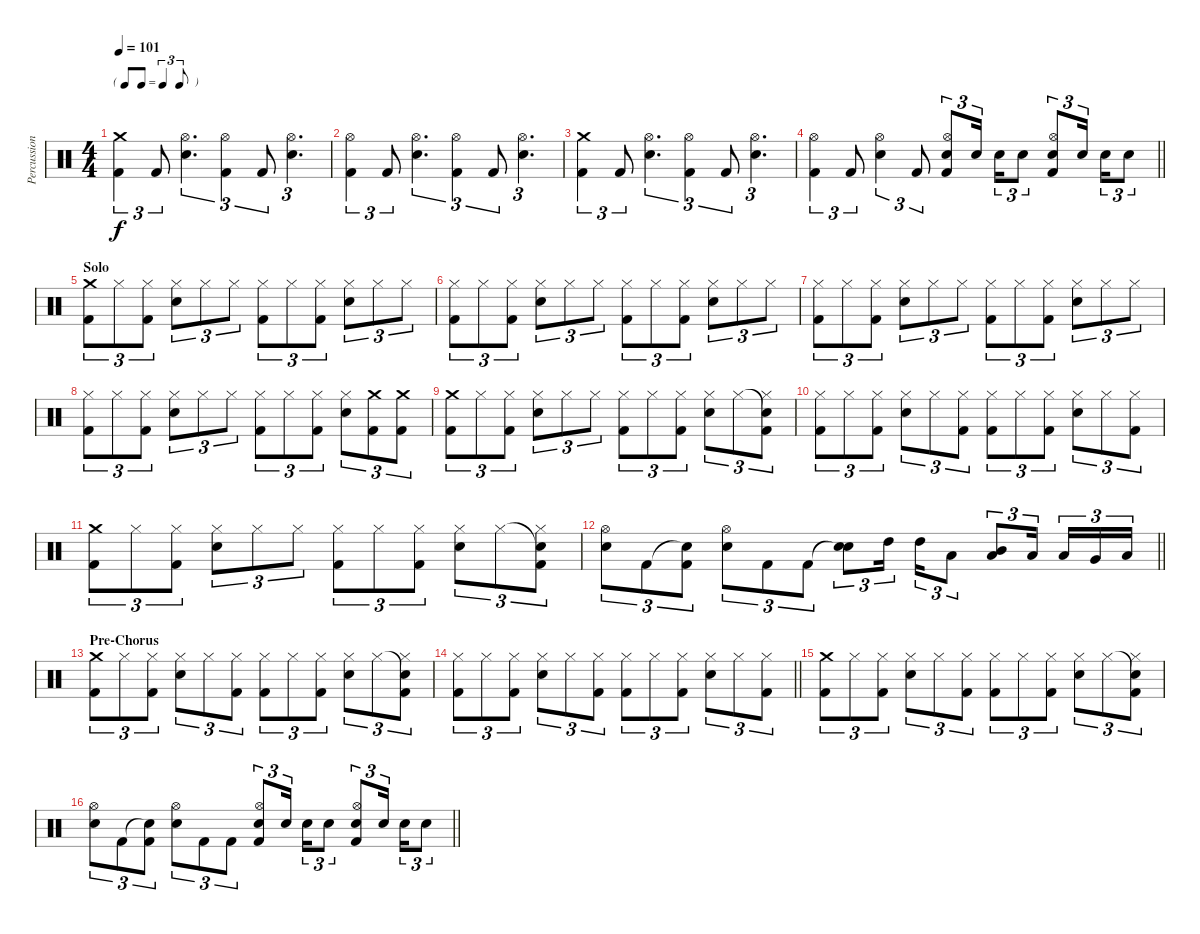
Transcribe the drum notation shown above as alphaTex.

\track ("Percussion" "Percussion") {instrument percussion}
\staff {score}
\articulation defaults
\ts (4 4)
\tf triplet8th
\tempo 101
\clef neutral
\ks c
("Crash medium (hit)" "Kick (hit) 2").4{tu (3 2) dy f} "Kick (hit) 2".8{tu (3 2)} ("Hi-Hat (open)" "Electric Snare (hit)").4{d tu (3 2)} ("Hi-Hat (open)" "Kick (hit) 2").4{tu (3 2)} "Kick (hit) 2".8{tu (3 2)} ("Hi-Hat (open)" "Electric Snare (hit)").4{d tu (3 2)} |
("Hi-Hat (open)" "Kick (hit) 2").4{tu (3 2)} "Kick (hit) 2".8{tu (3 2)} ("Hi-Hat (open)" "Electric Snare (hit)").4{d tu (3 2)} ("Hi-Hat (open)" "Kick (hit) 2").4{tu (3 2)} "Kick (hit) 2".8{tu (3 2)} ("Hi-Hat (open)" "Electric Snare (hit)").4{d tu (3 2)} |
("Crash medium (hit)" "Kick (hit) 2").4{tu (3 2)} "Kick (hit) 2".8{tu (3 2)} ("Hi-Hat (open)" "Electric Snare (hit)").4{d tu (3 2)} ("Hi-Hat (open)" "Kick (hit) 2").4{tu (3 2)} "Kick (hit) 2".8{tu (3 2)} ("Hi-Hat (open)" "Electric Snare (hit)").4{d tu (3 2)} |
\barLineRight lightlight
("Hi-Hat (open)" "Kick (hit) 2").4{tu (3 2)} "Kick (hit) 2".8{tu (3 2)} ("Hi-Hat (open)" "Electric Snare (hit)").4{tu (3 2)} "Kick (hit) 2".8{tu (3 2)} ("Hi-Hat (open)" "Electric Snare (hit)" "Kick (hit) 2").8{tu (3 2)} "Electric Snare (hit)".16{tu (3 2) beam splitsecondary} "Electric Snare (hit)".16{tu (3 2)} "Electric Snare (hit)".8{tu (3 2)} ("Hi-Hat (open)" "Electric Snare (hit)" "Kick (hit) 2").8{tu (3 2)} "Electric Snare (hit)".16{tu (3 2) beam splitsecondary} "Electric Snare (hit)".16{tu (3 2)} "Electric Snare (hit)".8{tu (3 2)} |
\section ("" "Solo")
("Crash medium (hit)" "Kick (hit) 2").8{tu (3 2)} "Hi-Hat (closed)".8{tu (3 2)} ("Hi-Hat (closed)" "Kick (hit) 2").8{tu (3 2)} ("Hi-Hat (closed)" "Electric Snare (hit)").8{tu (3 2)} "Hi-Hat (closed)".8{tu (3 2)} "Hi-Hat (closed)".8{tu (3 2)} ("Hi-Hat (closed)" "Kick (hit) 2").8{tu (3 2)} "Hi-Hat (closed)".8{tu (3 2)} ("Hi-Hat (closed)" "Kick (hit) 2").8{tu (3 2)} ("Hi-Hat (closed)" "Electric Snare (hit)").8{tu (3 2)} "Hi-Hat (closed)".8{tu (3 2)} "Hi-Hat (closed)".8{tu (3 2)} |
("Hi-Hat (closed)" "Kick (hit) 2").8{tu (3 2)} "Hi-Hat (closed)".8{tu (3 2)} ("Hi-Hat (closed)" "Kick (hit) 2").8{tu (3 2)} ("Hi-Hat (closed)" "Electric Snare (hit)").8{tu (3 2)} "Hi-Hat (closed)".8{tu (3 2)} "Hi-Hat (closed)".8{tu (3 2)} ("Hi-Hat (closed)" "Kick (hit) 2").8{tu (3 2)} "Hi-Hat (closed)".8{tu (3 2)} ("Hi-Hat (closed)" "Kick (hit) 2").8{tu (3 2)} ("Hi-Hat (closed)" "Electric Snare (hit)").8{tu (3 2)} "Hi-Hat (closed)".8{tu (3 2)} "Hi-Hat (closed)".8{tu (3 2)} |
("Hi-Hat (closed)" "Kick (hit) 2").8{tu (3 2)} "Hi-Hat (closed)".8{tu (3 2)} ("Hi-Hat (closed)" "Kick (hit) 2").8{tu (3 2)} ("Hi-Hat (closed)" "Electric Snare (hit)").8{tu (3 2)} "Hi-Hat (closed)".8{tu (3 2)} "Hi-Hat (closed)".8{tu (3 2)} ("Hi-Hat (closed)" "Kick (hit) 2").8{tu (3 2)} "Hi-Hat (closed)".8{tu (3 2)} ("Hi-Hat (closed)" "Kick (hit) 2").8{tu (3 2)} ("Hi-Hat (closed)" "Electric Snare (hit)").8{tu (3 2)} "Hi-Hat (closed)".8{tu (3 2)} "Hi-Hat (closed)".8{tu (3 2)} |
("Hi-Hat (closed)" "Kick (hit) 2").8{tu (3 2)} "Hi-Hat (closed)".8{tu (3 2)} ("Hi-Hat (closed)" "Kick (hit) 2").8{tu (3 2)} ("Hi-Hat (closed)" "Electric Snare (hit)").8{tu (3 2)} "Hi-Hat (closed)".8{tu (3 2)} "Hi-Hat (closed)".8{tu (3 2)} ("Hi-Hat (closed)" "Kick (hit) 2").8{tu (3 2)} "Hi-Hat (closed)".8{tu (3 2)} ("Hi-Hat (closed)" "Kick (hit) 2").8{tu (3 2)} ("Hi-Hat (closed)" "Electric Snare (hit)").8{tu (3 2)} ("Crash medium (hit)" "Kick (hit) 2").8{tu (3 2)} ("Crash medium (hit)" "Kick (hit) 2").8{tu (3 2)} |
("Crash medium (hit)" "Kick (hit) 2").8{tu (3 2)} "Hi-Hat (closed)".8{tu (3 2)} ("Hi-Hat (closed)" "Kick (hit) 2").8{tu (3 2)} ("Hi-Hat (closed)" "Electric Snare (hit)").8{tu (3 2)} "Hi-Hat (closed)".8{tu (3 2)} "Hi-Hat (closed)".8{tu (3 2)} ("Hi-Hat (closed)" "Kick (hit) 2").8{tu (3 2)} "Hi-Hat (closed)".8{tu (3 2)} ("Hi-Hat (closed)" "Kick (hit) 2").8{tu (3 2)} ("Hi-Hat (closed)" "Electric Snare (hit)").8{tu (3 2)} "Hi-Hat (closed)".8{tu (3 2)} ("Snare (hit)"{t} "Hi-Hat (closed)" "Kick (hit) 2").8{tu (3 2)} |
("Hi-Hat (closed)" "Kick (hit) 2").8{tu (3 2)} "Hi-Hat (closed)".8{tu (3 2)} ("Hi-Hat (closed)" "Kick (hit) 2").8{tu (3 2)} ("Hi-Hat (closed)" "Electric Snare (hit)").8{tu (3 2)} "Hi-Hat (closed)".8{tu (3 2)} ("Hi-Hat (closed)" "Kick (hit) 2").8{tu (3 2)} ("Hi-Hat (closed)" "Kick (hit) 2").8{tu (3 2)} "Hi-Hat (closed)".8{tu (3 2)} ("Hi-Hat (closed)" "Kick (hit) 2").8{tu (3 2)} ("Hi-Hat (closed)" "Electric Snare (hit)").8{tu (3 2)} "Hi-Hat (closed)".8{tu (3 2)} ("Hi-Hat (closed)" "Kick (hit) 2").8{tu (3 2)} |
("Crash medium (hit)" "Kick (hit) 2").8{tu (3 2)} "Hi-Hat (closed)".8{tu (3 2)} ("Hi-Hat (closed)" "Kick (hit) 2").8{tu (3 2)} ("Hi-Hat (closed)" "Electric Snare (hit)").8{tu (3 2)} "Hi-Hat (closed)".8{tu (3 2)} "Hi-Hat (closed)".8{tu (3 2)} ("Hi-Hat (closed)" "Kick (hit) 2").8{tu (3 2)} "Hi-Hat (closed)".8{tu (3 2)} ("Hi-Hat (closed)" "Kick (hit) 2").8{tu (3 2)} ("Hi-Hat (closed)" "Electric Snare (hit)").8{tu (3 2)} "Hi-Hat (closed)".8{tu (3 2)} ("Snare (hit)"{t} "Hi-Hat (closed)" "Kick (hit) 2").8{tu (3 2)} |
\barLineRight lightlight
("Hi-Hat (open)" "Electric Snare (hit)").8{tu (3 2)} "Kick (hit) 2".8{tu (3 2)} ("Snare (hit)"{t} "Kick (hit) 2").8{tu (3 2)} ("Hi-Hat (open)" "Electric Snare (hit)").8{tu (3 2)} "Kick (hit) 2".8{tu (3 2)} "Kick (hit) 2".8{tu (3 2)} ("Snare (hit)"{t} "Electric Snare (hit)").8{tu (3 2)} "High Tom (hit)".16{tu (3 2) beam splitsecondary} "High Tom (hit)".16{tu (3 2)} "Low Tom (hit)".8{tu (3 2)} ("Mid Tom (hit)" "Low Tom (hit)").8{tu (3 2)} "Low Tom (hit)".16{tu (3 2) beam splitsecondary} "Low Tom (hit)".16{tu (3 2)} "Very Low Tom (hit)".16{tu (3 2)} "Low Floor Tom (hit)".16{tu (3 2)} |
\section ("" "Pre-Chorus")
("Crash medium (hit)" "Kick (hit) 2").8{tu (3 2)} "Hi-Hat (closed)".8{tu (3 2)} ("Hi-Hat (closed)" "Kick (hit) 2").8{tu (3 2)} ("Hi-Hat (closed)" "Electric Snare (hit)").8{tu (3 2)} "Hi-Hat (closed)".8{tu (3 2)} ("Hi-Hat (closed)" "Kick (hit) 2").8{tu (3 2)} ("Hi-Hat (closed)" "Kick (hit) 2").8{tu (3 2)} "Hi-Hat (closed)".8{tu (3 2)} ("Hi-Hat (closed)" "Kick (hit) 2").8{tu (3 2)} ("Hi-Hat (closed)" "Electric Snare (hit)").8{tu (3 2)} "Hi-Hat (closed)".8{tu (3 2)} ("Snare (hit)"{t} "Hi-Hat (closed)" "Kick (hit) 2").8{tu (3 2)} |
\barLineRight lightlight
("Hi-Hat (closed)" "Kick (hit) 2").8{tu (3 2)} "Hi-Hat (closed)".8{tu (3 2)} ("Hi-Hat (closed)" "Kick (hit) 2").8{tu (3 2)} ("Hi-Hat (closed)" "Electric Snare (hit)").8{tu (3 2)} "Hi-Hat (closed)".8{tu (3 2)} ("Hi-Hat (closed)" "Kick (hit) 2").8{tu (3 2)} ("Hi-Hat (closed)" "Kick (hit) 2").8{tu (3 2)} "Hi-Hat (closed)".8{tu (3 2)} ("Hi-Hat (closed)" "Kick (hit) 2").8{tu (3 2)} ("Hi-Hat (closed)" "Electric Snare (hit)").8{tu (3 2)} "Hi-Hat (closed)".8{tu (3 2)} ("Hi-Hat (closed)" "Kick (hit) 2").8{tu (3 2)} |
("Crash medium (hit)" "Kick (hit) 2").8{tu (3 2)} "Hi-Hat (closed)".8{tu (3 2)} ("Hi-Hat (closed)" "Kick (hit) 2").8{tu (3 2)} ("Hi-Hat (closed)" "Electric Snare (hit)").8{tu (3 2)} "Hi-Hat (closed)".8{tu (3 2)} ("Hi-Hat (closed)" "Kick (hit) 2").8{tu (3 2)} ("Hi-Hat (closed)" "Kick (hit) 2").8{tu (3 2)} "Hi-Hat (closed)".8{tu (3 2)} ("Hi-Hat (closed)" "Kick (hit) 2").8{tu (3 2)} ("Hi-Hat (closed)" "Electric Snare (hit)").8{tu (3 2)} "Hi-Hat (closed)".8{tu (3 2)} ("Snare (hit)"{t} "Hi-Hat (closed)" "Kick (hit) 2").8{tu (3 2)} |
\barLineRight lightlight
("Hi-Hat (open)" "Electric Snare (hit)").8{tu (3 2)} "Kick (hit) 2".8{tu (3 2)} ("Snare (hit)"{t} "Kick (hit) 2").8{tu (3 2)} ("Hi-Hat (open)" "Electric Snare (hit)").8{tu (3 2)} "Kick (hit) 2".8{tu (3 2)} "Kick (hit) 2".8{tu (3 2)} ("Hi-Hat (open)" "Electric Snare (hit)" "Kick (hit) 2").8{tu (3 2)} "Electric Snare (hit)".16{tu (3 2) beam splitsecondary} "Electric Snare (hit)".16{tu (3 2)} "Electric Snare (hit)".8{tu (3 2)} ("Hi-Hat (open)" "Electric Snare (hit)" "Kick (hit) 2").8{tu (3 2)} "Electric Snare (hit)".16{tu (3 2) beam splitsecondary} "Electric Snare (hit)".16{tu (3 2)} "Electric Snare (hit)".8{tu (3 2)}
